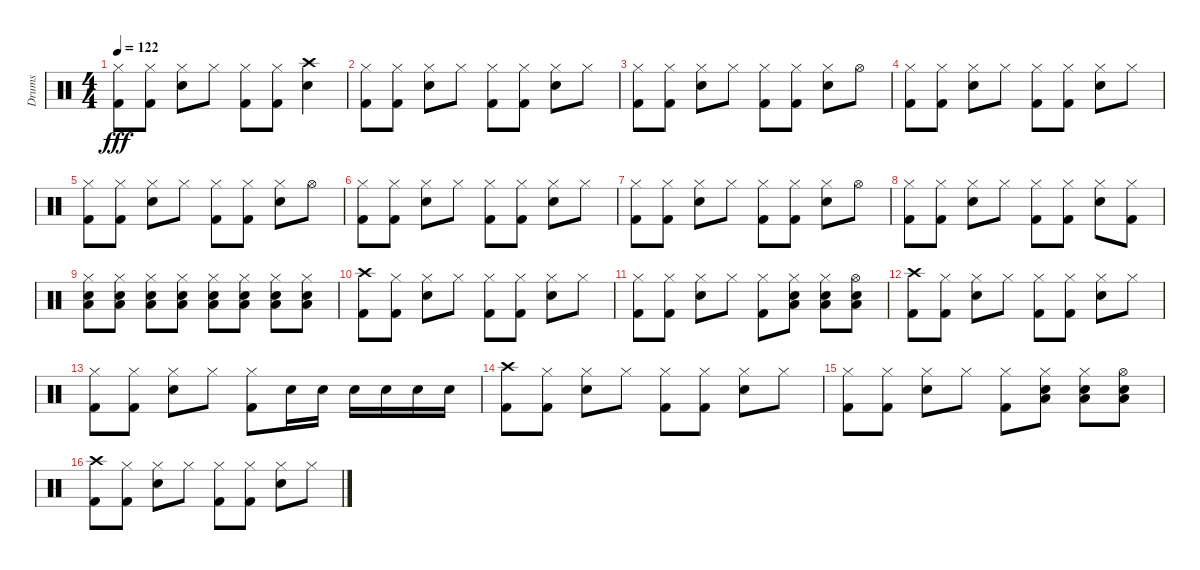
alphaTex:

\track ("Drums" "Drums") {instrument percussion}
\staff {score}
\articulation defaults
\ts (4 4)
\tempo 122
\clef neutral
\ks c
("Hi-Hat (closed)" "Kick (hit) 2").8{dy fff} ("Hi-Hat (closed)" "Kick (hit) 2").8 ("Hi-Hat (closed)" "Snare (hit) 2").8 "Hi-Hat (closed)".8 ("Hi-Hat (closed)" "Kick (hit) 2").8 ("Hi-Hat (closed)" "Kick (hit) 2").8 ("Crash high (hit)" "Snare (hit) 2").4 |
("Hi-Hat (closed)" "Kick (hit) 2").8 ("Hi-Hat (closed)" "Kick (hit) 2").8 ("Hi-Hat (closed)" "Snare (hit) 2").8 "Hi-Hat (closed)".8 ("Hi-Hat (closed)" "Kick (hit) 2").8 ("Hi-Hat (closed)" "Kick (hit) 2").8 ("Hi-Hat (closed)" "Snare (hit) 2").8 "Hi-Hat (closed)".8 |
("Hi-Hat (closed)" "Kick (hit) 2").8 ("Hi-Hat (closed)" "Kick (hit) 2").8 ("Hi-Hat (closed)" "Snare (hit) 2").8 "Hi-Hat (closed)".8 ("Hi-Hat (closed)" "Kick (hit) 2").8 ("Hi-Hat (closed)" "Kick (hit) 2").8 ("Hi-Hat (closed)" "Snare (hit) 2").8 "Hi-Hat (open)".8 |
("Hi-Hat (closed)" "Kick (hit) 2").8 ("Hi-Hat (closed)" "Kick (hit) 2").8 ("Hi-Hat (closed)" "Snare (hit) 2").8 "Hi-Hat (closed)".8 ("Hi-Hat (closed)" "Kick (hit) 2").8 ("Hi-Hat (closed)" "Kick (hit) 2").8 ("Hi-Hat (closed)" "Snare (hit) 2").8 "Hi-Hat (closed)".8 |
("Hi-Hat (closed)" "Kick (hit) 2").8 ("Hi-Hat (closed)" "Kick (hit) 2").8 ("Hi-Hat (closed)" "Snare (hit) 2").8 "Hi-Hat (closed)".8 ("Hi-Hat (closed)" "Kick (hit) 2").8 ("Hi-Hat (closed)" "Kick (hit) 2").8 ("Hi-Hat (closed)" "Snare (hit) 2").8 "Hi-Hat (open)".8 |
("Hi-Hat (closed)" "Kick (hit) 2").8 ("Hi-Hat (closed)" "Kick (hit) 2").8 ("Hi-Hat (closed)" "Snare (hit) 2").8 "Hi-Hat (closed)".8 ("Hi-Hat (closed)" "Kick (hit) 2").8 ("Hi-Hat (closed)" "Kick (hit) 2").8 ("Hi-Hat (closed)" "Snare (hit) 2").8 "Hi-Hat (closed)".8 |
("Hi-Hat (closed)" "Kick (hit) 2").8 ("Hi-Hat (closed)" "Kick (hit) 2").8 ("Hi-Hat (closed)" "Snare (hit) 2").8 "Hi-Hat (closed)".8 ("Hi-Hat (closed)" "Kick (hit) 2").8 ("Hi-Hat (closed)" "Kick (hit) 2").8 ("Hi-Hat (closed)" "Snare (hit) 2").8 "Hi-Hat (open)".8 |
("Hi-Hat (closed)" "Kick (hit) 2").8 ("Hi-Hat (closed)" "Kick (hit) 2").8 ("Hi-Hat (closed)" "Snare (hit) 2").8 "Hi-Hat (closed)".8 ("Hi-Hat (closed)" "Kick (hit) 2").8 ("Hi-Hat (closed)" "Kick (hit) 2").8 ("Hi-Hat (closed)" "Snare (hit) 2").8 ("Hi-Hat (closed)" "Kick (hit) 2").8 |
("Hi-Hat (closed)" "Snare (hit) 2" "Low Floor Tom (hit)").8 ("Hi-Hat (closed)" "Snare (hit) 2" "Low Floor Tom (hit)").8 ("Hi-Hat (closed)" "Snare (hit) 2" "Low Floor Tom (hit)").8 ("Hi-Hat (closed)" "Snare (hit) 2" "Low Floor Tom (hit)").8 ("Hi-Hat (closed)" "Snare (hit) 2" "Low Floor Tom (hit)").8 ("Hi-Hat (closed)" "Snare (hit) 2" "Low Floor Tom (hit)").8 ("Hi-Hat (closed)" "Snare (hit) 2" "Low Floor Tom (hit)").8 ("Hi-Hat (closed)" "Snare (hit) 2" "Low Floor Tom (hit)").8 |
("Crash high (hit)" "Kick (hit) 2").8 ("Hi-Hat (closed)" "Kick (hit) 2").8 ("Hi-Hat (closed)" "Snare (hit) 2").8 "Hi-Hat (closed)".8 ("Hi-Hat (closed)" "Kick (hit) 2").8 ("Hi-Hat (closed)" "Kick (hit) 2").8 ("Hi-Hat (closed)" "Snare (hit) 2").8 "Hi-Hat (closed)".8 |
("Hi-Hat (closed)" "Kick (hit) 2").8 ("Hi-Hat (closed)" "Kick (hit) 2").8 ("Hi-Hat (closed)" "Snare (hit) 2").8 "Hi-Hat (closed)".8 ("Hi-Hat (closed)" "Kick (hit) 2").8 ("Hi-Hat (closed)" "Snare (hit) 2" "Low Floor Tom (hit)").8 ("Hi-Hat (closed)" "Snare (hit) 2" "Low Floor Tom (hit)").8 ("Hi-Hat (open)" "Snare (hit) 2" "Low Floor Tom (hit)").8 |
("Crash high (hit)" "Kick (hit) 2").8 ("Hi-Hat (closed)" "Kick (hit) 2").8 ("Hi-Hat (closed)" "Snare (hit) 2").8 "Hi-Hat (closed)".8 ("Hi-Hat (closed)" "Kick (hit) 2").8 ("Hi-Hat (closed)" "Kick (hit) 2").8 ("Hi-Hat (closed)" "Snare (hit) 2").8 "Hi-Hat (closed)".8 |
("Hi-Hat (closed)" "Kick (hit) 2").8 ("Hi-Hat (closed)" "Kick (hit) 2").8 ("Hi-Hat (closed)" "Snare (hit) 2").8 "Hi-Hat (closed)".8 ("Hi-Hat (closed)" "Kick (hit) 2").8 "Snare (hit) 2".16 "Snare (hit) 2".16 "Snare (hit) 2".16 "Snare (hit) 2".16 "Snare (hit) 2".16 "Snare (hit) 2".16 |
("Crash high (hit)" "Kick (hit) 2").8 ("Hi-Hat (closed)" "Kick (hit) 2").8 ("Hi-Hat (closed)" "Snare (hit) 2").8 "Hi-Hat (closed)".8 ("Hi-Hat (closed)" "Kick (hit) 2").8 ("Hi-Hat (closed)" "Kick (hit) 2").8 ("Hi-Hat (closed)" "Snare (hit) 2").8 "Hi-Hat (closed)".8 |
("Hi-Hat (closed)" "Kick (hit) 2").8 ("Hi-Hat (closed)" "Kick (hit) 2").8 ("Hi-Hat (closed)" "Snare (hit) 2").8 "Hi-Hat (closed)".8 ("Hi-Hat (closed)" "Kick (hit) 2").8 ("Hi-Hat (closed)" "Snare (hit) 2" "Low Floor Tom (hit)").8 ("Hi-Hat (closed)" "Snare (hit) 2" "Low Floor Tom (hit)").8 ("Hi-Hat (open)" "Snare (hit) 2" "Low Floor Tom (hit)").8 |
("Crash high (hit)" "Kick (hit) 2").8 ("Hi-Hat (closed)" "Kick (hit) 2").8 ("Hi-Hat (closed)" "Snare (hit) 2").8 "Hi-Hat (closed)".8 ("Hi-Hat (closed)" "Kick (hit) 2").8 ("Hi-Hat (closed)" "Kick (hit) 2").8 ("Hi-Hat (closed)" "Snare (hit) 2").8 "Hi-Hat (closed)".8
